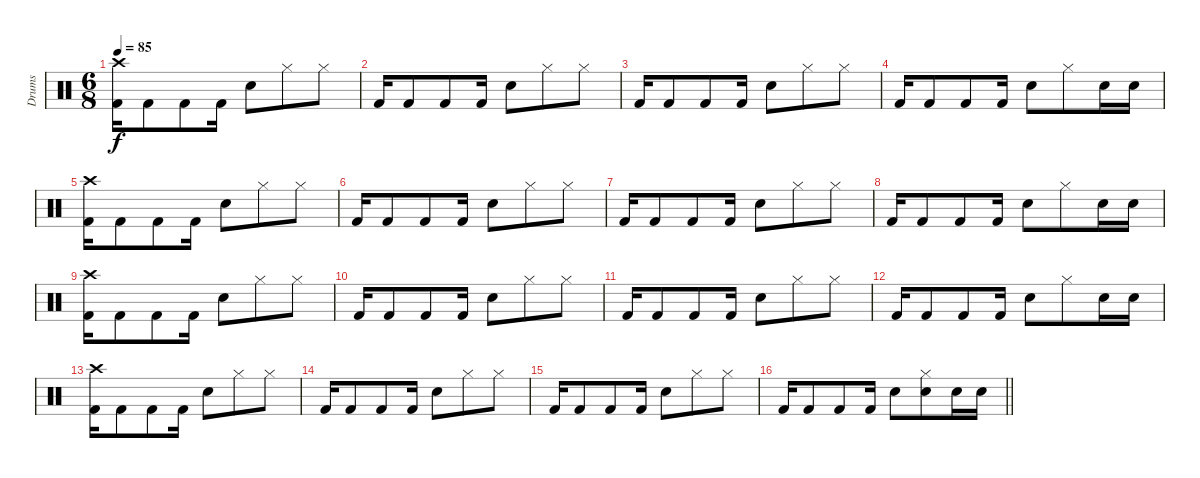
\track ("Drums" "Drums") {instrument percussion}
\staff {score}
\articulation defaults
\ts (6 8)
\tempo 85
\clef neutral
\ks c
("Crash high (hit)" "Kick (hit) 2").16{dy f} "Kick (hit) 2".8 "Kick (hit) 2".8 "Kick (hit) 2".16 "Snare (hit) 2".8 "Hi-Hat (closed)".8 "Hi-Hat (closed)".8 |
"Kick (hit) 2".16 "Kick (hit) 2".8 "Kick (hit) 2".8 "Kick (hit) 2".16 "Snare (hit) 2".8 "Hi-Hat (closed)".8 "Hi-Hat (closed)".8 |
"Kick (hit) 2".16 "Kick (hit) 2".8 "Kick (hit) 2".8 "Kick (hit) 2".16 "Snare (hit) 2".8 "Hi-Hat (closed)".8 "Hi-Hat (closed)".8 |
"Kick (hit) 2".16 "Kick (hit) 2".8 "Kick (hit) 2".8 "Kick (hit) 2".16 "Snare (hit) 2".8 "Hi-Hat (closed)".8 "Snare (hit) 2".16 "Snare (hit) 2".16 |
("Crash high (hit)" "Kick (hit) 2").16 "Kick (hit) 2".8 "Kick (hit) 2".8 "Kick (hit) 2".16 "Snare (hit) 2".8 "Hi-Hat (closed)".8 "Hi-Hat (closed)".8 |
"Kick (hit) 2".16 "Kick (hit) 2".8 "Kick (hit) 2".8 "Kick (hit) 2".16 "Snare (hit) 2".8 "Hi-Hat (closed)".8 "Hi-Hat (closed)".8 |
"Kick (hit) 2".16 "Kick (hit) 2".8 "Kick (hit) 2".8 "Kick (hit) 2".16 "Snare (hit) 2".8 "Hi-Hat (closed)".8 "Hi-Hat (closed)".8 |
"Kick (hit) 2".16 "Kick (hit) 2".8 "Kick (hit) 2".8 "Kick (hit) 2".16 "Snare (hit) 2".8 "Hi-Hat (closed)".8 "Snare (hit) 2".16 "Snare (hit) 2".16 |
("Crash high (hit)" "Kick (hit) 2").16 "Kick (hit) 2".8 "Kick (hit) 2".8 "Kick (hit) 2".16 "Snare (hit) 2".8 "Hi-Hat (closed)".8 "Hi-Hat (closed)".8 |
"Kick (hit) 2".16 "Kick (hit) 2".8 "Kick (hit) 2".8 "Kick (hit) 2".16 "Snare (hit) 2".8 "Hi-Hat (closed)".8 "Hi-Hat (closed)".8 |
"Kick (hit) 2".16 "Kick (hit) 2".8 "Kick (hit) 2".8 "Kick (hit) 2".16 "Snare (hit) 2".8 "Hi-Hat (closed)".8 "Hi-Hat (closed)".8 |
"Kick (hit) 2".16 "Kick (hit) 2".8 "Kick (hit) 2".8 "Kick (hit) 2".16 "Snare (hit) 2".8 "Hi-Hat (closed)".8 "Snare (hit) 2".16 "Snare (hit) 2".16 |
("Crash high (hit)" "Kick (hit) 2").16 "Kick (hit) 2".8 "Kick (hit) 2".8 "Kick (hit) 2".16 "Snare (hit) 2".8 "Hi-Hat (closed)".8 "Hi-Hat (closed)".8 |
"Kick (hit) 2".16 "Kick (hit) 2".8 "Kick (hit) 2".8 "Kick (hit) 2".16 "Snare (hit) 2".8 "Hi-Hat (closed)".8 "Hi-Hat (closed)".8 |
"Kick (hit) 2".16 "Kick (hit) 2".8 "Kick (hit) 2".8 "Kick (hit) 2".16 "Snare (hit) 2".8 "Hi-Hat (closed)".8 "Hi-Hat (closed)".8 |
\barLineRight lightlight "Kick (hit) 2".16 "Kick (hit) 2".8 "Kick (hit) 2".8 "Kick (hit) 2".16 "Snare (hit) 2".8
("Hi-Hat (closed)" "Snare (hit) 2").8 "Snare (hit) 2".16 "Snare (hit) 2".16
